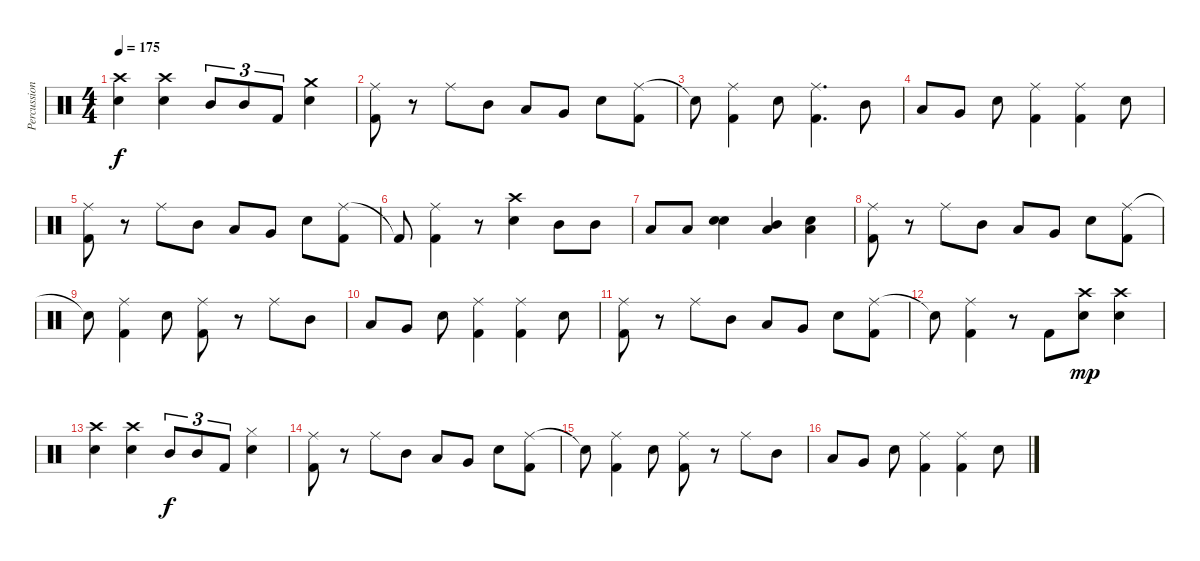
\track ("Percussion" "Percussion") {instrument percussion}
\staff {score}
\articulation defaults
\ts (4 4)
\tempo 175
\clef neutral
\ks c
("Crash high (hit)" "Electric Snare (hit)").4{dy f} ("Crash high (hit)" "Electric Snare (hit)").4 "Mid Tom (hit)".8{tu (3 2)} "Mid Tom (hit)".8{tu (3 2)} "Kick (hit) 2".8{tu (3 2)} ("Crash medium (hit)" "Electric Snare (hit)").4 |
("Ride (middle)" "Kick (hit) 2").8 r.8 "Ride (middle)".8 "Mid Tom (hit)".8 "Low Tom (hit)".8 "Very Low Tom (hit)".8 "Electric Snare (hit)".8 ("Ride (middle)" "Kick (hit) 2").8 |
"Snare (hit)"{t}.8 ("Ride (middle)" "Kick (hit) 2").4 "Electric Snare (hit)".8 ("Ride (middle)" "Kick (hit) 2").4{d} "Mid Tom (hit)".8 |
"Low Tom (hit)".8 "Very Low Tom (hit)".8 "Electric Snare (hit)".8 ("Ride (middle)" "Kick (hit) 2").4 ("Ride (middle)" "Kick (hit) 2").4 "Electric Snare (hit)".8 |
("Ride (middle)" "Kick (hit) 2").8 r.8 "Ride (middle)".8 "Mid Tom (hit)".8 "Low Tom (hit)".8 "Very Low Tom (hit)".8 "Electric Snare (hit)".8 ("Ride (middle)" "Kick (hit) 2").8 |
"Kick (hit) 2"{t}.8 ("Ride (middle)" "Kick (hit) 2").4 r.8 ("Crash high (hit)" "Electric Snare (hit)").4 "Mid Tom (hit)".8 "Mid Tom (hit)".8 |
"Low Tom (hit)".8 "Low Tom (hit)".8 ("Electric Snare (hit)" "Electric Snare (hit)").4 ("Mid Tom (hit)" "Low Floor Tom (hit)").4 ("Low Floor Tom (hit)" "Electric Snare (hit)").4 |
("Ride (middle)" "Kick (hit) 2").8 r.8 "Ride (middle)".8 "Mid Tom (hit)".8 "Low Tom (hit)".8 "Very Low Tom (hit)".8 "Electric Snare (hit)".8 ("Ride (middle)" "Kick (hit) 2").8 |
"Snare (hit)"{t}.8 ("Ride (middle)" "Kick (hit) 2").4 "Electric Snare (hit)".8 ("Ride (middle)" "Kick (hit) 2").8 r.8 "Ride (middle)".8 "Mid Tom (hit)".8 |
"Low Tom (hit)".8 "Very Low Tom (hit)".8 "Electric Snare (hit)".8 ("Ride (middle)" "Kick (hit) 2").4 ("Ride (middle)" "Kick (hit) 2").4 "Electric Snare (hit)".8 |
("Ride (middle)" "Kick (hit) 2").8 r.8 "Ride (middle)".8 "Mid Tom (hit)".8 "Low Tom (hit)".8 "Very Low Tom (hit)".8 "Electric Snare (hit)".8 ("Ride (middle)" "Kick (hit) 2").8 |
"Snare (hit)"{t}.8 ("Ride (middle)" "Kick (hit) 2").4 r.8 "Kick (hit) 2".8 ("Crash high (hit)" "Electric Snare (hit)").8{dy mp} ("Crash high (hit)" "Electric Snare (hit)").4 |
("Crash high (hit)" "Electric Snare (hit)").4 ("Crash high (hit)" "Electric Snare (hit)").4 "Mid Tom (hit)".8{tu (3 2) dy f} "Mid Tom (hit)".8{tu (3 2)} "Kick (hit) 2".8{tu (3 2)} ("Hi-Hat (closed)" "Electric Snare (hit)").4 |
("Ride (middle)" "Kick (hit) 2").8 r.8 "Ride (middle)".8 "Mid Tom (hit)".8 "Low Tom (hit)".8 "Very Low Tom (hit)".8 "Electric Snare (hit)".8 ("Ride (middle)" "Kick (hit) 2").8 |
"Snare (hit)"{t}.8 ("Ride (middle)" "Kick (hit) 2").4 "Electric Snare (hit)".8 ("Ride (middle)" "Kick (hit) 2").8 r.8 "Ride (middle)".8 "Mid Tom (hit)".8 |
"Low Tom (hit)".8 "Very Low Tom (hit)".8 "Electric Snare (hit)".8 ("Ride (middle)" "Kick (hit) 2").4 ("Ride (middle)" "Kick (hit) 2").4 "Electric Snare (hit)".8
